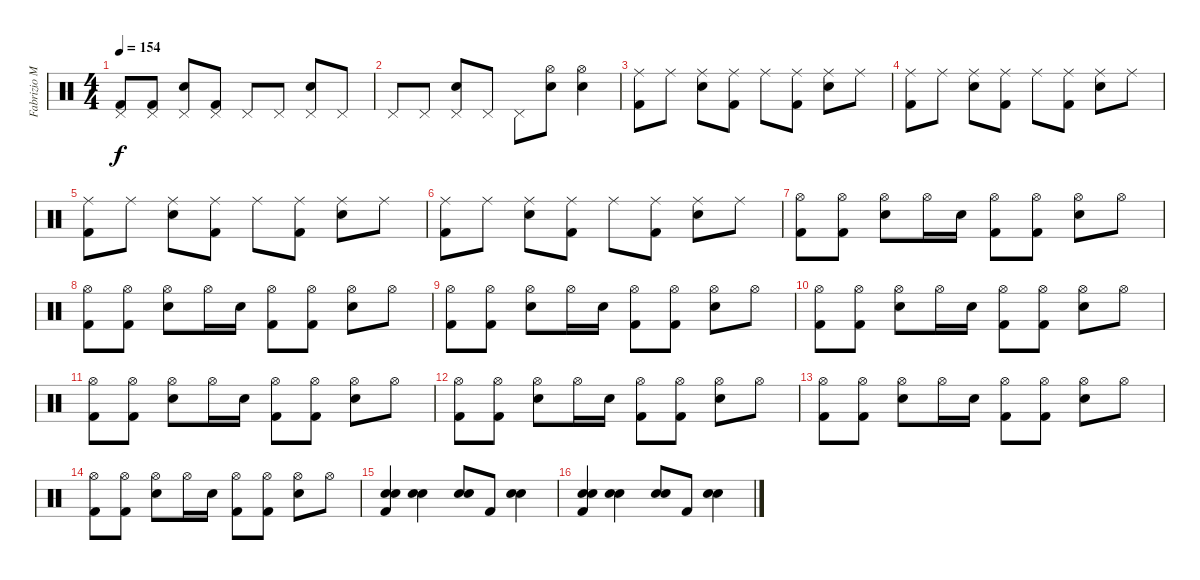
\track ("Fabrizio Moretti" "Fabrizio M") {instrument percussion}
\staff {score}
\articulation defaults
\ts (4 4)
\tempo 154
\clef neutral
\ks c
("Pedal Hi-Hat (hit)" "Kick (hit) 2").8{dy f} ("Pedal Hi-Hat (hit)" "Kick (hit) 2").8 ("Pedal Hi-Hat (hit)" "Electric Snare (hit)").8 ("Pedal Hi-Hat (hit)" "Kick (hit) 2").8 "Pedal Hi-Hat (hit)".8 "Pedal Hi-Hat (hit)".8 ("Pedal Hi-Hat (hit)" "Electric Snare (hit)").8 "Pedal Hi-Hat (hit)".8 |
"Pedal Hi-Hat (hit)".8 "Pedal Hi-Hat (hit)".8 ("Pedal Hi-Hat (hit)" "Electric Snare (hit)").8 "Pedal Hi-Hat (hit)".8 "Pedal Hi-Hat (hit)".8 ("Hi-Hat (open)" "Electric Snare (hit)").8 ("Hi-Hat (open)" "Electric Snare (hit)").4 |
("Ride (middle)" "Kick (hit) 2").8 "Ride (middle)".8 ("Ride (middle)" "Electric Snare (hit)").8 ("Ride (middle)" "Kick (hit) 2").8 "Ride (middle)".8 ("Ride (middle)" "Kick (hit) 2").8 ("Ride (middle)" "Electric Snare (hit)").8 "Ride (middle)".8 |
("Ride (middle)" "Kick (hit) 2").8 "Ride (middle)".8 ("Ride (middle)" "Electric Snare (hit)").8 ("Ride (middle)" "Kick (hit) 2").8 "Ride (middle)".8 ("Ride (middle)" "Kick (hit) 2").8 ("Ride (middle)" "Electric Snare (hit)").8 "Ride (middle)".8 |
("Ride (middle)" "Kick (hit) 2").8 "Ride (middle)".8 ("Ride (middle)" "Electric Snare (hit)").8 ("Ride (middle)" "Kick (hit) 2").8 "Ride (middle)".8 ("Ride (middle)" "Kick (hit) 2").8 ("Ride (middle)" "Electric Snare (hit)").8 "Ride (middle)".8 |
("Ride (middle)" "Kick (hit) 2").8 "Ride (middle)".8 ("Ride (middle)" "Electric Snare (hit)").8 ("Ride (middle)" "Kick (hit) 2").8 "Ride (middle)".8 ("Ride (middle)" "Kick (hit) 2").8 ("Ride (middle)" "Electric Snare (hit)").8 "Ride (middle)".8 |
("Hi-Hat (open)" "Kick (hit) 2").8 ("Hi-Hat (open)" "Kick (hit) 2").8 ("Hi-Hat (open)" "Electric Snare (hit)").8 "Hi-Hat (open)".16 "Electric Snare (hit)".16 ("Hi-Hat (open)" "Kick (hit) 2").8 ("Hi-Hat (open)" "Kick (hit) 2").8 ("Hi-Hat (open)" "Electric Snare (hit)").8 "Hi-Hat (open)".8 |
("Hi-Hat (open)" "Kick (hit) 2").8 ("Hi-Hat (open)" "Kick (hit) 2").8 ("Hi-Hat (open)" "Electric Snare (hit)").8 "Hi-Hat (open)".16 "Electric Snare (hit)".16 ("Hi-Hat (open)" "Kick (hit) 2").8 ("Hi-Hat (open)" "Kick (hit) 2").8 ("Hi-Hat (open)" "Electric Snare (hit)").8 "Hi-Hat (open)".8 |
("Hi-Hat (open)" "Kick (hit) 2").8 ("Hi-Hat (open)" "Kick (hit) 2").8 ("Hi-Hat (open)" "Electric Snare (hit)").8 "Hi-Hat (open)".16 "Electric Snare (hit)".16 ("Hi-Hat (open)" "Kick (hit) 2").8 ("Hi-Hat (open)" "Kick (hit) 2").8 ("Hi-Hat (open)" "Electric Snare (hit)").8 "Hi-Hat (open)".8 |
("Hi-Hat (open)" "Kick (hit) 2").8 ("Hi-Hat (open)" "Kick (hit) 2").8 ("Hi-Hat (open)" "Electric Snare (hit)").8 "Hi-Hat (open)".16 "Electric Snare (hit)".16 ("Hi-Hat (open)" "Kick (hit) 2").8 ("Hi-Hat (open)" "Kick (hit) 2").8 ("Hi-Hat (open)" "Electric Snare (hit)").8 "Hi-Hat (open)".8 |
("Hi-Hat (open)" "Kick (hit) 2").8 ("Hi-Hat (open)" "Kick (hit) 2").8 ("Hi-Hat (open)" "Electric Snare (hit)").8 "Hi-Hat (open)".16 "Electric Snare (hit)".16 ("Hi-Hat (open)" "Kick (hit) 2").8 ("Hi-Hat (open)" "Kick (hit) 2").8 ("Hi-Hat (open)" "Electric Snare (hit)").8 "Hi-Hat (open)".8 |
("Hi-Hat (open)" "Kick (hit) 2").8 ("Hi-Hat (open)" "Kick (hit) 2").8 ("Hi-Hat (open)" "Electric Snare (hit)").8 "Hi-Hat (open)".16 "Electric Snare (hit)".16 ("Hi-Hat (open)" "Kick (hit) 2").8 ("Hi-Hat (open)" "Kick (hit) 2").8 ("Hi-Hat (open)" "Electric Snare (hit)").8 "Hi-Hat (open)".8 |
("Hi-Hat (open)" "Kick (hit) 2").8 ("Hi-Hat (open)" "Kick (hit) 2").8 ("Hi-Hat (open)" "Electric Snare (hit)").8 "Hi-Hat (open)".16 "Electric Snare (hit)".16 ("Hi-Hat (open)" "Kick (hit) 2").8 ("Hi-Hat (open)" "Kick (hit) 2").8 ("Hi-Hat (open)" "Electric Snare (hit)").8 "Hi-Hat (open)".8 |
("Hi-Hat (open)" "Kick (hit) 2").8 ("Hi-Hat (open)" "Kick (hit) 2").8 ("Hi-Hat (open)" "Electric Snare (hit)").8 "Hi-Hat (open)".16 "Electric Snare (hit)".16 ("Hi-Hat (open)" "Kick (hit) 2").8 ("Hi-Hat (open)" "Kick (hit) 2").8 ("Hi-Hat (open)" "Electric Snare (hit)").8 "Hi-Hat (open)".8 |
("Electric Snare (hit)" "Electric Snare (hit)" "Kick (hit) 2").4 ("Electric Snare (hit)" "Electric Snare (hit)").4 ("Electric Snare (hit)" "Electric Snare (hit)").8 "Kick (hit) 2".8 ("Electric Snare (hit)" "Electric Snare (hit)").4 |
("Electric Snare (hit)" "Electric Snare (hit)" "Kick (hit) 2").4 ("Electric Snare (hit)" "Electric Snare (hit)").4 ("Electric Snare (hit)" "Electric Snare (hit)").8 "Kick (hit) 2".8 ("Electric Snare (hit)" "Electric Snare (hit)").4
